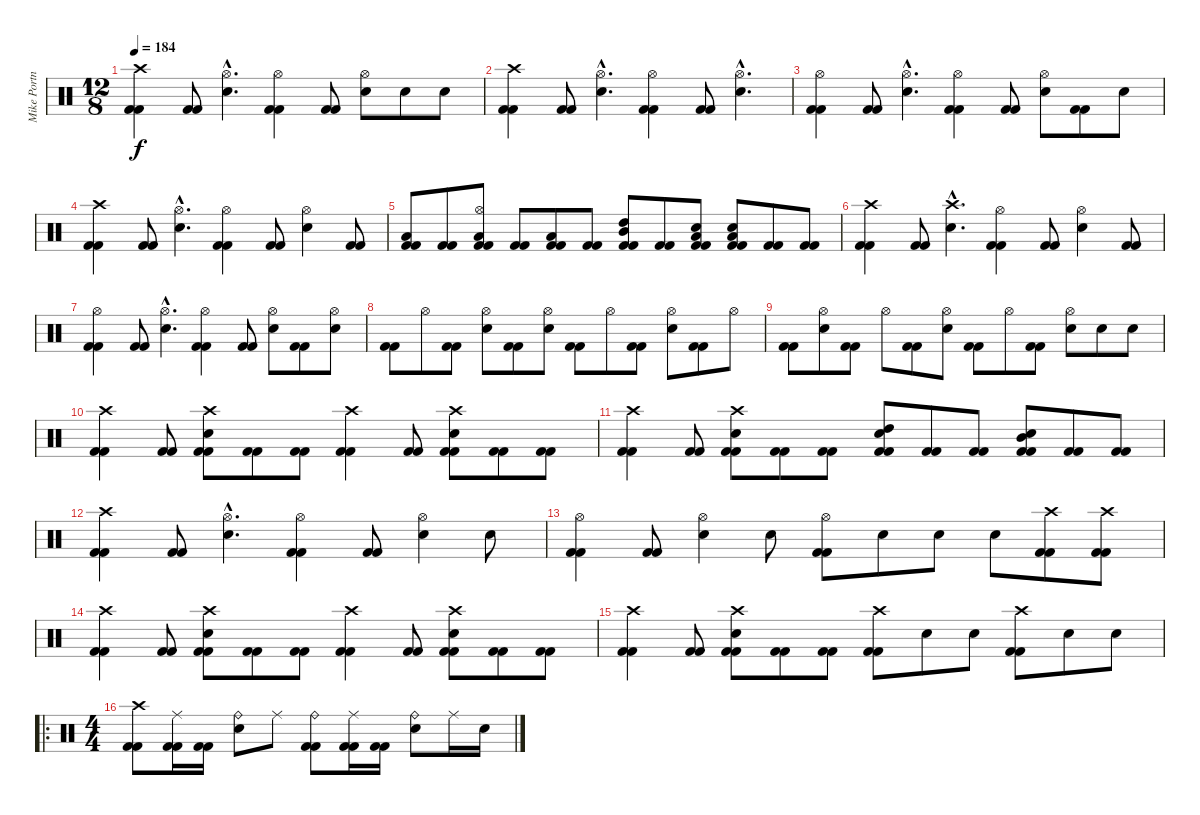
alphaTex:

\track ("Mike Portnoy - Drum" "Mike Portn") {instrument percussion}
\staff {score}
\articulation defaults
\ts (12 8)
\tempo 184
\clef neutral
\ks c
("Crash high (hit)" "Kick (hit) 2" "Kick (hit) 2").4{dy f} ("Kick (hit) 2" "Kick (hit) 2").8 ("Hi-Hat (open)"{hac} "Snare (hit) 2"{hac}).4{d} ("Hi-Hat (open)" "Kick (hit) 2" "Kick (hit) 2").4 ("Kick (hit) 2" "Kick (hit) 2").8 ("Hi-Hat (open)" "Snare (hit) 2").8 "Snare (hit) 2".8 "Snare (hit) 2".8 |
("Crash high (hit)" "Kick (hit) 2" "Kick (hit) 2").4 ("Kick (hit) 2" "Kick (hit) 2").8 ("Hi-Hat (open)"{hac} "Snare (hit) 2"{hac}).4{d} ("Hi-Hat (open)" "Kick (hit) 2" "Kick (hit) 2").4 ("Kick (hit) 2" "Kick (hit) 2").8 ("Hi-Hat (open)"{hac} "Snare (hit) 2"{hac}).4{d} |
("Hi-Hat (open)" "Kick (hit) 2" "Kick (hit) 2").4 ("Kick (hit) 2" "Kick (hit) 2").8 ("Hi-Hat (open)"{hac} "Snare (hit) 2"{hac}).4{d} ("Hi-Hat (open)" "Kick (hit) 2" "Kick (hit) 2").4 ("Kick (hit) 2" "Kick (hit) 2").8 ("Hi-Hat (open)" "Snare (hit) 2").8 ("Kick (hit) 2" "Kick (hit) 2").8 "Snare (hit) 2".8 |
("Crash high (hit)" "Kick (hit) 2" "Kick (hit) 2").4 ("Kick (hit) 2" "Kick (hit) 2").8 ("Hi-Hat (open)"{hac} "Snare (hit) 2"{hac}).4{d} ("Hi-Hat (open)" "Kick (hit) 2" "Kick (hit) 2").4 ("Kick (hit) 2" "Kick (hit) 2").8 ("Hi-Hat (open)" "Snare (hit) 2").4 ("Kick (hit) 2" "Kick (hit) 2").8 |
("Low Floor Tom (hit)" "Kick (hit) 2" "Kick (hit) 2").8 ("Kick (hit) 2" "Kick (hit) 2").8 ("Low Tom (hit)" "Hi-Hat (open)" "Kick (hit) 2" "Kick (hit) 2").8 ("Kick (hit) 2" "Kick (hit) 2").8 ("Low Floor Tom (hit)" "Kick (hit) 2" "Kick (hit) 2").8 ("Kick (hit) 2" "Kick (hit) 2").8 ("Mid Tom (hit)" "High Tom (hit)" "Kick (hit) 2" "Kick (hit) 2").8 ("Kick (hit) 2" "Kick (hit) 2").8 ("Snare (hit) 2" "Low Floor Tom (hit)" "Kick (hit) 2" "Kick (hit) 2").8 ("Snare (hit) 2" "Low Floor Tom (hit)" "Kick (hit) 2" "Kick (hit) 2").8 ("Kick (hit) 2" "Kick (hit) 2").8 ("Kick (hit) 2" "Kick (hit) 2").8 |
("Crash high (hit)" "Kick (hit) 2" "Kick (hit) 2").4 ("Kick (hit) 2" "Kick (hit) 2").8 ("Crash high (hit)"{hac} "Snare (hit) 2"{hac}).4{d} ("Hi-Hat (open)" "Kick (hit) 2" "Kick (hit) 2").4 ("Kick (hit) 2" "Kick (hit) 2").8 ("Hi-Hat (open)" "Snare (hit) 2").4 ("Kick (hit) 2" "Kick (hit) 2").8 |
("Hi-Hat (open)" "Kick (hit) 2" "Kick (hit) 2").4 ("Kick (hit) 2" "Kick (hit) 2").8 ("Hi-Hat (open)"{hac} "Snare (hit) 2"{hac}).4{d} ("Hi-Hat (open)" "Kick (hit) 2" "Kick (hit) 2").4 ("Kick (hit) 2" "Kick (hit) 2").8 ("Hi-Hat (open)" "Snare (hit) 2").8 ("Kick (hit) 2" "Kick (hit) 2").8 ("Hi-Hat (open)" "Snare (hit) 2").8 |
("Kick (hit) 2" "Kick (hit) 2").8 "Hi-Hat (open)".8 ("Kick (hit) 2" "Kick (hit) 2").8 ("Hi-Hat (open)" "Snare (hit) 2").8 ("Kick (hit) 2" "Kick (hit) 2").8 ("Hi-Hat (open)" "Snare (hit) 2").8 ("Kick (hit) 2" "Kick (hit) 2").8 "Hi-Hat (open)".8 ("Kick (hit) 2" "Kick (hit) 2").8 ("Hi-Hat (open)" "Snare (hit) 2").8 ("Kick (hit) 2" "Kick (hit) 2").8 "Hi-Hat (open)".8 |
("Kick (hit) 2" "Kick (hit) 2").8 ("Hi-Hat (open)" "Snare (hit) 2").8 ("Kick (hit) 2" "Kick (hit) 2").8 "Hi-Hat (open)".8 ("Kick (hit) 2" "Kick (hit) 2").8 ("Hi-Hat (open)" "Snare (hit) 2").8 ("Kick (hit) 2" "Kick (hit) 2").8 "Hi-Hat (open)".8 ("Kick (hit) 2" "Kick (hit) 2").8 ("Hi-Hat (open)" "Snare (hit) 2").8 "Snare (hit) 2".8 "Snare (hit) 2".8 |
("Crash high (hit)" "Kick (hit) 2" "Kick (hit) 2").4 ("Kick (hit) 2" "Kick (hit) 2").8 ("Crash high (hit)" "Snare (hit) 2" "Kick (hit) 2" "Kick (hit) 2").8 ("Kick (hit) 2" "Kick (hit) 2").8 ("Kick (hit) 2" "Kick (hit) 2").8 ("Crash high (hit)" "Kick (hit) 2" "Kick (hit) 2").4 ("Kick (hit) 2" "Kick (hit) 2").8 ("Crash high (hit)" "Snare (hit) 2" "Kick (hit) 2" "Kick (hit) 2").8 ("Kick (hit) 2" "Kick (hit) 2").8 ("Kick (hit) 2" "Kick (hit) 2").8 |
("Crash high (hit)" "Kick (hit) 2" "Kick (hit) 2").4 ("Kick (hit) 2" "Kick (hit) 2").8 ("Crash high (hit)" "Snare (hit) 2" "Kick (hit) 2" "Kick (hit) 2").8 ("Kick (hit) 2" "Kick (hit) 2").8 ("Kick (hit) 2" "Kick (hit) 2").8 ("High Tom (hit)" "Snare (hit) 2" "Kick (hit) 2" "Kick (hit) 2").8 ("Kick (hit) 2" "Kick (hit) 2").8 ("Kick (hit) 2" "Kick (hit) 2").8 ("Mid Tom (hit)" "Snare (hit) 2" "Kick (hit) 2" "Kick (hit) 2").8 ("Kick (hit) 2" "Kick (hit) 2").8 ("Kick (hit) 2" "Kick (hit) 2").8 |
("Crash high (hit)" "Kick (hit) 2" "Kick (hit) 2").4 ("Kick (hit) 2" "Kick (hit) 2").8 ("Hi-Hat (open)"{hac} "Snare (hit) 2"{hac}).4{d} ("Hi-Hat (open)" "Kick (hit) 2" "Kick (hit) 2").4 ("Kick (hit) 2" "Kick (hit) 2").8 ("Hi-Hat (open)" "Snare (hit) 2").4 "Snare (hit) 2".8 |
("Hi-Hat (open)" "Kick (hit) 2" "Kick (hit) 2").4 ("Kick (hit) 2" "Kick (hit) 2").8 ("Hi-Hat (open)" "Snare (hit) 2").4 "Snare (hit) 2".8 ("Hi-Hat (open)" "Kick (hit) 2" "Kick (hit) 2").8 "Snare (hit) 2".8 "Snare (hit) 2".8 "Snare (hit) 2".8 ("Crash high (hit)" "Kick (hit) 2" "Kick (hit) 2").8 ("Crash high (hit)" "Kick (hit) 2" "Kick (hit) 2").8 |
("Crash high (hit)" "Kick (hit) 2" "Kick (hit) 2").4 ("Kick (hit) 2" "Kick (hit) 2").8 ("Crash high (hit)" "Snare (hit) 2" "Kick (hit) 2" "Kick (hit) 2").8 ("Kick (hit) 2" "Kick (hit) 2").8 ("Kick (hit) 2" "Kick (hit) 2").8 ("Crash high (hit)" "Kick (hit) 2" "Kick (hit) 2").4 ("Kick (hit) 2" "Kick (hit) 2").8 ("Crash high (hit)" "Snare (hit) 2" "Kick (hit) 2" "Kick (hit) 2").8 ("Kick (hit) 2" "Kick (hit) 2").8 ("Kick (hit) 2" "Kick (hit) 2").8 |
("Crash high (hit)" "Kick (hit) 2" "Kick (hit) 2").4 ("Kick (hit) 2" "Kick (hit) 2").8 ("Crash high (hit)" "Snare (hit) 2" "Kick (hit) 2" "Kick (hit) 2").8 ("Kick (hit) 2" "Kick (hit) 2").8 ("Kick (hit) 2" "Kick (hit) 2").8 ("Crash high (hit)" "Kick (hit) 2" "Kick (hit) 2").8 "Snare (hit) 2".8 "Snare (hit) 2".8 ("Crash high (hit)" "Kick (hit) 2" "Kick (hit) 2").8 "Snare (hit) 2".8 "Snare (hit) 2".8 |
\ro
\ts (4 4)
("Crash high (hit)" "Kick (hit) 2" "Kick (hit) 2").8 ("Ride (middle)" "Kick (hit) 2" "Kick (hit) 2").16 ("Kick (hit) 2" "Kick (hit) 2").16 ("Ride (bell)" "Snare (hit) 2").8 "Ride (middle)".8 ("Ride (bell)" "Kick (hit) 2" "Kick (hit) 2").8 ("Ride (middle)" "Kick (hit) 2" "Kick (hit) 2").16 ("Kick (hit) 2" "Kick (hit) 2").16 ("Ride (bell)" "Snare (hit) 2").8 "Ride (middle)".16 "Snare (hit) 2".16
